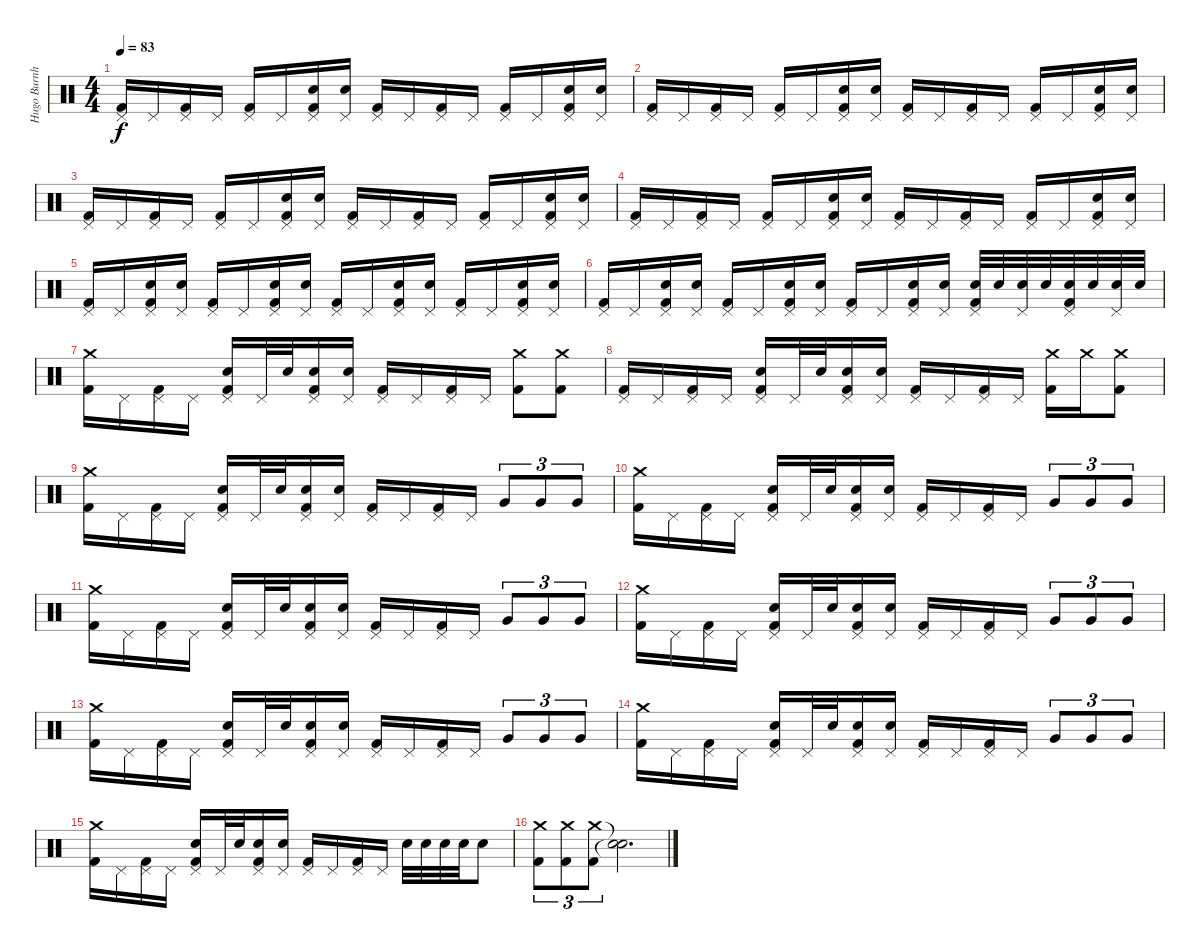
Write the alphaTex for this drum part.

\track ("Hugo Burnham" "Hugo Burnh") {instrument percussion}
\staff {score}
\articulation defaults
\ts (4 4)
\tempo 83
\clef neutral
\ks c
("Pedal Hi-Hat (hit)" "Kick (hit) 2").16{dy f} "Pedal Hi-Hat (hit)".16 ("Pedal Hi-Hat (hit)" "Kick (hit) 2").16 "Pedal Hi-Hat (hit)".16 ("Pedal Hi-Hat (hit)" "Kick (hit) 2").16 "Pedal Hi-Hat (hit)".16 ("Pedal Hi-Hat (hit)" "Electric Snare (hit)" "Kick (hit) 2").16 ("Pedal Hi-Hat (hit)" "Electric Snare (hit)").16 ("Pedal Hi-Hat (hit)" "Kick (hit) 2").16 "Pedal Hi-Hat (hit)".16 ("Pedal Hi-Hat (hit)" "Kick (hit) 2").16 "Pedal Hi-Hat (hit)".16 ("Pedal Hi-Hat (hit)" "Kick (hit) 2").16 "Pedal Hi-Hat (hit)".16 ("Pedal Hi-Hat (hit)" "Electric Snare (hit)" "Kick (hit) 2").16 ("Pedal Hi-Hat (hit)" "Electric Snare (hit)").16 |
("Pedal Hi-Hat (hit)" "Kick (hit) 2").16 "Pedal Hi-Hat (hit)".16 ("Pedal Hi-Hat (hit)" "Kick (hit) 2").16 "Pedal Hi-Hat (hit)".16 ("Pedal Hi-Hat (hit)" "Kick (hit) 2").16 "Pedal Hi-Hat (hit)".16 ("Pedal Hi-Hat (hit)" "Electric Snare (hit)" "Kick (hit) 2").16 ("Pedal Hi-Hat (hit)" "Electric Snare (hit)").16 ("Pedal Hi-Hat (hit)" "Kick (hit) 2").16 "Pedal Hi-Hat (hit)".16 ("Pedal Hi-Hat (hit)" "Kick (hit) 2").16 "Pedal Hi-Hat (hit)".16 ("Pedal Hi-Hat (hit)" "Kick (hit) 2").16 "Pedal Hi-Hat (hit)".16 ("Pedal Hi-Hat (hit)" "Electric Snare (hit)" "Kick (hit) 2").16 ("Pedal Hi-Hat (hit)" "Electric Snare (hit)").16 |
("Pedal Hi-Hat (hit)" "Kick (hit) 2").16 "Pedal Hi-Hat (hit)".16 ("Pedal Hi-Hat (hit)" "Kick (hit) 2").16 "Pedal Hi-Hat (hit)".16 ("Pedal Hi-Hat (hit)" "Kick (hit) 2").16 "Pedal Hi-Hat (hit)".16 ("Pedal Hi-Hat (hit)" "Electric Snare (hit)" "Kick (hit) 2").16 ("Pedal Hi-Hat (hit)" "Electric Snare (hit)").16 ("Pedal Hi-Hat (hit)" "Kick (hit) 2").16 "Pedal Hi-Hat (hit)".16 ("Pedal Hi-Hat (hit)" "Kick (hit) 2").16 "Pedal Hi-Hat (hit)".16 ("Pedal Hi-Hat (hit)" "Kick (hit) 2").16 "Pedal Hi-Hat (hit)".16 ("Pedal Hi-Hat (hit)" "Electric Snare (hit)" "Kick (hit) 2").16 ("Pedal Hi-Hat (hit)" "Electric Snare (hit)").16 |
("Pedal Hi-Hat (hit)" "Kick (hit) 2").16 "Pedal Hi-Hat (hit)".16 ("Pedal Hi-Hat (hit)" "Kick (hit) 2").16 "Pedal Hi-Hat (hit)".16 ("Pedal Hi-Hat (hit)" "Kick (hit) 2").16 "Pedal Hi-Hat (hit)".16 ("Pedal Hi-Hat (hit)" "Electric Snare (hit)" "Kick (hit) 2").16 ("Pedal Hi-Hat (hit)" "Electric Snare (hit)").16 ("Pedal Hi-Hat (hit)" "Kick (hit) 2").16 "Pedal Hi-Hat (hit)".16 ("Pedal Hi-Hat (hit)" "Kick (hit) 2").16 "Pedal Hi-Hat (hit)".16 ("Pedal Hi-Hat (hit)" "Kick (hit) 2").16 "Pedal Hi-Hat (hit)".16 ("Pedal Hi-Hat (hit)" "Electric Snare (hit)" "Kick (hit) 2").16 ("Pedal Hi-Hat (hit)" "Electric Snare (hit)").16 |
("Pedal Hi-Hat (hit)" "Kick (hit) 2").16 "Pedal Hi-Hat (hit)".16 ("Pedal Hi-Hat (hit)" "Electric Snare (hit)" "Kick (hit) 2").16 ("Pedal Hi-Hat (hit)" "Electric Snare (hit)").16 ("Pedal Hi-Hat (hit)" "Kick (hit) 2").16 "Pedal Hi-Hat (hit)".16 ("Pedal Hi-Hat (hit)" "Electric Snare (hit)" "Kick (hit) 2").16 ("Pedal Hi-Hat (hit)" "Electric Snare (hit)").16 ("Pedal Hi-Hat (hit)" "Kick (hit) 2").16 "Pedal Hi-Hat (hit)".16 ("Pedal Hi-Hat (hit)" "Electric Snare (hit)" "Kick (hit) 2").16 ("Pedal Hi-Hat (hit)" "Electric Snare (hit)").16 ("Pedal Hi-Hat (hit)" "Kick (hit) 2").16 "Pedal Hi-Hat (hit)".16 ("Pedal Hi-Hat (hit)" "Electric Snare (hit)" "Kick (hit) 2").16 ("Pedal Hi-Hat (hit)" "Electric Snare (hit)").16 |
("Pedal Hi-Hat (hit)" "Kick (hit) 2").16 "Pedal Hi-Hat (hit)".16 ("Pedal Hi-Hat (hit)" "Electric Snare (hit)" "Kick (hit) 2").16 ("Pedal Hi-Hat (hit)" "Electric Snare (hit)").16 ("Pedal Hi-Hat (hit)" "Kick (hit) 2").16 "Pedal Hi-Hat (hit)".16 ("Pedal Hi-Hat (hit)" "Electric Snare (hit)" "Kick (hit) 2").16 ("Pedal Hi-Hat (hit)" "Electric Snare (hit)").16 ("Pedal Hi-Hat (hit)" "Kick (hit) 2").16 "Pedal Hi-Hat (hit)".16 ("Pedal Hi-Hat (hit)" "Electric Snare (hit)" "Kick (hit) 2").16 ("Pedal Hi-Hat (hit)" "Electric Snare (hit)").16 ("Pedal Hi-Hat (hit)" "Electric Snare (hit)" "Kick (hit) 2").32 "Electric Snare (hit)".32 ("Pedal Hi-Hat (hit)" "Electric Snare (hit)").32 "Electric Snare (hit)".32 ("Pedal Hi-Hat (hit)" "Electric Snare (hit)" "Kick (hit) 2").32 "Electric Snare (hit)".32 ("Pedal Hi-Hat (hit)" "Electric Snare (hit)").32 "Electric Snare (hit)".32 |
("Crash medium (hit)" "Kick (hit) 2").16 "Pedal Hi-Hat (hit)".16 ("Pedal Hi-Hat (hit)" "Kick (hit) 2").16 "Pedal Hi-Hat (hit)".16 ("Pedal Hi-Hat (hit)" "Electric Snare (hit)" "Kick (hit) 2").16 "Pedal Hi-Hat (hit)".32 "Electric Snare (hit)".32 ("Pedal Hi-Hat (hit)" "Electric Snare (hit)" "Kick (hit) 2").16 ("Pedal Hi-Hat (hit)" "Electric Snare (hit)").16 ("Pedal Hi-Hat (hit)" "Kick (hit) 2").16 "Pedal Hi-Hat (hit)".16 ("Pedal Hi-Hat (hit)" "Kick (hit) 2").16 "Pedal Hi-Hat (hit)".16 ("Crash medium (hit)" "Kick (hit) 2").8 ("Crash medium (hit)" "Kick (hit) 2").8 |
("Pedal Hi-Hat (hit)" "Kick (hit) 2").16 "Pedal Hi-Hat (hit)".16 ("Pedal Hi-Hat (hit)" "Kick (hit) 2").16 "Pedal Hi-Hat (hit)".16 ("Pedal Hi-Hat (hit)" "Electric Snare (hit)" "Kick (hit) 2").16 "Pedal Hi-Hat (hit)".32 "Electric Snare (hit)".32 ("Pedal Hi-Hat (hit)" "Electric Snare (hit)" "Kick (hit) 2").16 ("Pedal Hi-Hat (hit)" "Electric Snare (hit)").16 ("Pedal Hi-Hat (hit)" "Kick (hit) 2").16 "Pedal Hi-Hat (hit)".16 ("Pedal Hi-Hat (hit)" "Kick (hit) 2").16 "Pedal Hi-Hat (hit)".16 ("Crash medium (hit)" "Kick (hit) 2").16 "Crash medium (hit)".16 ("Crash medium (hit)" "Kick (hit) 2").8 |
("Crash medium (hit)" "Kick (hit) 2").16 "Pedal Hi-Hat (hit)".16 ("Pedal Hi-Hat (hit)" "Kick (hit) 2").16 "Pedal Hi-Hat (hit)".16 ("Pedal Hi-Hat (hit)" "Electric Snare (hit)" "Kick (hit) 2").16 "Pedal Hi-Hat (hit)".32 "Electric Snare (hit)".32 ("Pedal Hi-Hat (hit)" "Electric Snare (hit)" "Kick (hit) 2").16 ("Pedal Hi-Hat (hit)" "Electric Snare (hit)").16 ("Pedal Hi-Hat (hit)" "Kick (hit) 2").16 "Pedal Hi-Hat (hit)".16 ("Pedal Hi-Hat (hit)" "Kick (hit) 2").16 "Pedal Hi-Hat (hit)".16 "Very Low Tom (hit)".8{tu (3 2)} "Very Low Tom (hit)".8{tu (3 2)} "Very Low Tom (hit)".8{tu (3 2)} |
("Crash medium (hit)" "Kick (hit) 2").16 "Pedal Hi-Hat (hit)".16 ("Pedal Hi-Hat (hit)" "Kick (hit) 2").16 "Pedal Hi-Hat (hit)".16 ("Pedal Hi-Hat (hit)" "Electric Snare (hit)" "Kick (hit) 2").16 "Pedal Hi-Hat (hit)".32 "Electric Snare (hit)".32 ("Pedal Hi-Hat (hit)" "Electric Snare (hit)" "Kick (hit) 2").16 ("Pedal Hi-Hat (hit)" "Electric Snare (hit)").16 ("Pedal Hi-Hat (hit)" "Kick (hit) 2").16 "Pedal Hi-Hat (hit)".16 ("Pedal Hi-Hat (hit)" "Kick (hit) 2").16 "Pedal Hi-Hat (hit)".16 "Very Low Tom (hit)".8{tu (3 2)} "Very Low Tom (hit)".8{tu (3 2)} "Very Low Tom (hit)".8{tu (3 2)} |
("Crash medium (hit)" "Kick (hit) 2").16 "Pedal Hi-Hat (hit)".16 ("Pedal Hi-Hat (hit)" "Kick (hit) 2").16 "Pedal Hi-Hat (hit)".16 ("Pedal Hi-Hat (hit)" "Electric Snare (hit)" "Kick (hit) 2").16 "Pedal Hi-Hat (hit)".32 "Electric Snare (hit)".32 ("Pedal Hi-Hat (hit)" "Electric Snare (hit)" "Kick (hit) 2").16 ("Pedal Hi-Hat (hit)" "Electric Snare (hit)").16 ("Pedal Hi-Hat (hit)" "Kick (hit) 2").16 "Pedal Hi-Hat (hit)".16 ("Pedal Hi-Hat (hit)" "Kick (hit) 2").16 "Pedal Hi-Hat (hit)".16 "Very Low Tom (hit)".8{tu (3 2)} "Very Low Tom (hit)".8{tu (3 2)} "Very Low Tom (hit)".8{tu (3 2)} |
("Crash medium (hit)" "Kick (hit) 2").16 "Pedal Hi-Hat (hit)".16 ("Pedal Hi-Hat (hit)" "Kick (hit) 2").16 "Pedal Hi-Hat (hit)".16 ("Pedal Hi-Hat (hit)" "Electric Snare (hit)" "Kick (hit) 2").16 "Pedal Hi-Hat (hit)".32 "Electric Snare (hit)".32 ("Pedal Hi-Hat (hit)" "Electric Snare (hit)" "Kick (hit) 2").16 ("Pedal Hi-Hat (hit)" "Electric Snare (hit)").16 ("Pedal Hi-Hat (hit)" "Kick (hit) 2").16 "Pedal Hi-Hat (hit)".16 ("Pedal Hi-Hat (hit)" "Kick (hit) 2").16 "Pedal Hi-Hat (hit)".16 "Very Low Tom (hit)".8{tu (3 2)} "Very Low Tom (hit)".8{tu (3 2)} "Very Low Tom (hit)".8{tu (3 2)} |
("Crash medium (hit)" "Kick (hit) 2").16 "Pedal Hi-Hat (hit)".16 ("Pedal Hi-Hat (hit)" "Kick (hit) 2").16 "Pedal Hi-Hat (hit)".16 ("Pedal Hi-Hat (hit)" "Electric Snare (hit)" "Kick (hit) 2").16 "Pedal Hi-Hat (hit)".32 "Electric Snare (hit)".32 ("Pedal Hi-Hat (hit)" "Electric Snare (hit)" "Kick (hit) 2").16 ("Pedal Hi-Hat (hit)" "Electric Snare (hit)").16 ("Pedal Hi-Hat (hit)" "Kick (hit) 2").16 "Pedal Hi-Hat (hit)".16 ("Pedal Hi-Hat (hit)" "Kick (hit) 2").16 "Pedal Hi-Hat (hit)".16 "Very Low Tom (hit)".8{tu (3 2)} "Very Low Tom (hit)".8{tu (3 2)} "Very Low Tom (hit)".8{tu (3 2)} |
("Crash medium (hit)" "Kick (hit) 2").16 "Pedal Hi-Hat (hit)".16 ("Pedal Hi-Hat (hit)" "Kick (hit) 2").16 "Pedal Hi-Hat (hit)".16 ("Pedal Hi-Hat (hit)" "Electric Snare (hit)" "Kick (hit) 2").16 "Pedal Hi-Hat (hit)".32 "Electric Snare (hit)".32 ("Pedal Hi-Hat (hit)" "Electric Snare (hit)" "Kick (hit) 2").16 ("Pedal Hi-Hat (hit)" "Electric Snare (hit)").16 ("Pedal Hi-Hat (hit)" "Kick (hit) 2").16 "Pedal Hi-Hat (hit)".16 ("Pedal Hi-Hat (hit)" "Kick (hit) 2").16 "Pedal Hi-Hat (hit)".16 "Very Low Tom (hit)".8{tu (3 2)} "Very Low Tom (hit)".8{tu (3 2)} "Very Low Tom (hit)".8{tu (3 2)} |
("Crash medium (hit)" "Kick (hit) 2").16 "Pedal Hi-Hat (hit)".16 ("Pedal Hi-Hat (hit)" "Kick (hit) 2").16 "Pedal Hi-Hat (hit)".16 ("Pedal Hi-Hat (hit)" "Electric Snare (hit)" "Kick (hit) 2").16 "Pedal Hi-Hat (hit)".32 "Electric Snare (hit)".32 ("Pedal Hi-Hat (hit)" "Electric Snare (hit)" "Kick (hit) 2").16 ("Pedal Hi-Hat (hit)" "Electric Snare (hit)").16 ("Pedal Hi-Hat (hit)" "Kick (hit) 2").16 "Pedal Hi-Hat (hit)".16 ("Pedal Hi-Hat (hit)" "Kick (hit) 2").16 "Pedal Hi-Hat (hit)".16 "Electric Snare (hit)".32 "Electric Snare (hit)".32 "Electric Snare (hit)".32 "Electric Snare (hit)".32 "Electric Snare (hit)".8 |
("Crash medium (hit)" "Kick (hit) 2").8{tu (3 2)} ("Crash medium (hit)" "Kick (hit) 2").8{tu (3 2)} ("Crash medium (hit)" "Kick (hit) 2").8{tu (3 2)} ("Snare (hit)"{t} "Snare (hit)"{t}).2{d}
